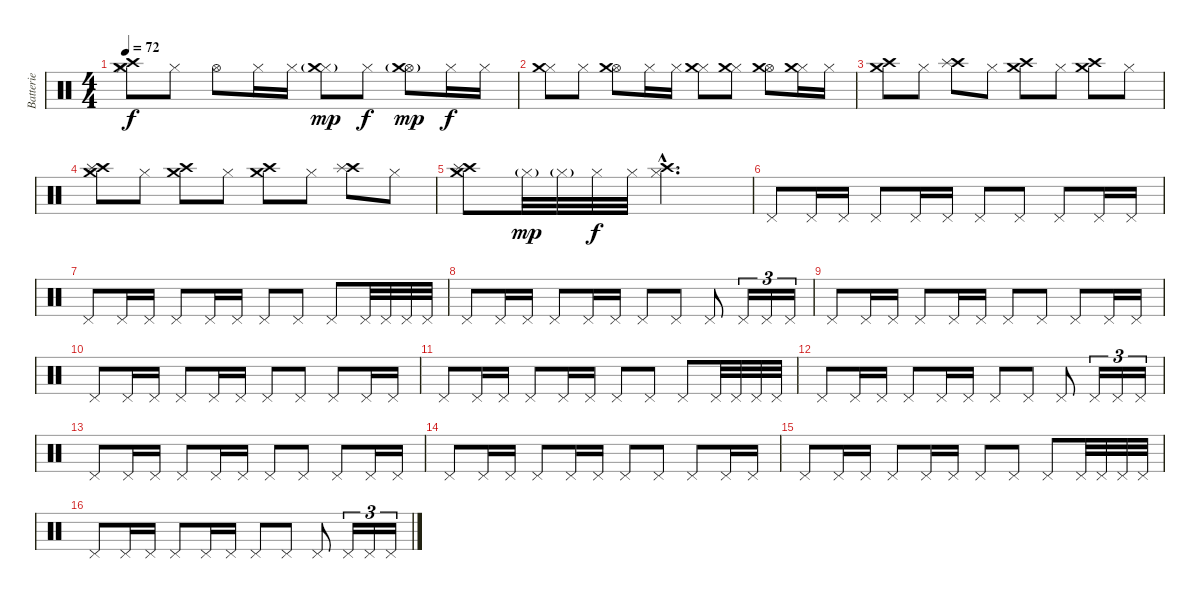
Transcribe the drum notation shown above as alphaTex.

\track ("Batterie" "Batterie") {instrument percussion}
\staff {score}
\articulation defaults
\ts (4 4)
\tempo 72
\clef neutral
\ks c
("Hi-Hat (closed)" "Crash high (hit)" "Crash medium (hit)").8{dy f} "Hi-Hat (closed)".8 "Hi-Hat (open)".8 "Hi-Hat (closed)".16 "Hi-Hat (closed)".16 ("Hi-Hat (closed)" "Crash medium (hit)"{g}).8{dy mp} "Hi-Hat (closed)".8{dy f} ("Hi-Hat (open)" "Crash medium (hit)"{g}).8{dy mp} "Hi-Hat (closed)".16{dy f} "Hi-Hat (closed)".16 |
("Hi-Hat (closed)" "Crash medium (hit)").8 "Hi-Hat (closed)".8 ("Hi-Hat (open)" "Crash medium (hit)").8 "Hi-Hat (closed)".16 "Hi-Hat (closed)".16 ("Hi-Hat (closed)" "Crash medium (hit)").8 ("Hi-Hat (closed)" "Crash medium (hit)").8 ("Hi-Hat (open)" "Crash medium (hit)").8 ("Hi-Hat (closed)" "Crash medium (hit)").16 "Hi-Hat (closed)".16 |
("Crash high (hit)" "Crash medium (hit)").8 "Hi-Hat (closed)".8 ("Crash high (hit)" "Splash (hit)").8 "Hi-Hat (closed)".8 ("Crash high (hit)" "Crash medium (hit)").8 "Hi-Hat (closed)".8 ("Crash high (hit)" "Crash medium (hit)").8 "Hi-Hat (closed)".8 |
("Crash high (hit)" "Crash medium (hit)" "Splash (hit)").8 "Hi-Hat (closed)".8 ("Crash high (hit)" "Crash medium (hit)").8 "Hi-Hat (closed)".8 ("Crash high (hit)" "Crash medium (hit)").8 "Hi-Hat (closed)".8 ("Crash high (hit)" "Splash (hit)").8 "Hi-Hat (closed)".8 |
("Crash high (hit)" "Splash (hit)" "Crash medium (hit)").8 "Hi-Hat (closed)"{g}.32{dy mp} "Hi-Hat (closed)"{g}.32 "Hi-Hat (closed)".32{dy f} "Hi-Hat (closed)".32 ("Crash high (hit)"{hac} "Hi-Hat (closed)"{hac}).2{d} |
"Pedal Hi-Hat (hit)".8 "Pedal Hi-Hat (hit)".16 "Pedal Hi-Hat (hit)".16 "Pedal Hi-Hat (hit)".8 "Pedal Hi-Hat (hit)".16 "Pedal Hi-Hat (hit)".16 "Pedal Hi-Hat (hit)".8 "Pedal Hi-Hat (hit)".8 "Pedal Hi-Hat (hit)".8 "Pedal Hi-Hat (hit)".16 "Pedal Hi-Hat (hit)".16 |
"Pedal Hi-Hat (hit)".8 "Pedal Hi-Hat (hit)".16 "Pedal Hi-Hat (hit)".16 "Pedal Hi-Hat (hit)".8 "Pedal Hi-Hat (hit)".16 "Pedal Hi-Hat (hit)".16 "Pedal Hi-Hat (hit)".8 "Pedal Hi-Hat (hit)".8 "Pedal Hi-Hat (hit)".8 "Pedal Hi-Hat (hit)".32 "Pedal Hi-Hat (hit)".32 "Pedal Hi-Hat (hit)".32 "Pedal Hi-Hat (hit)".32 |
"Pedal Hi-Hat (hit)".8 "Pedal Hi-Hat (hit)".16 "Pedal Hi-Hat (hit)".16 "Pedal Hi-Hat (hit)".8 "Pedal Hi-Hat (hit)".16 "Pedal Hi-Hat (hit)".16 "Pedal Hi-Hat (hit)".8 "Pedal Hi-Hat (hit)".8 "Pedal Hi-Hat (hit)".8 "Pedal Hi-Hat (hit)".16{tu (3 2)} "Pedal Hi-Hat (hit)".16{tu (3 2)} "Pedal Hi-Hat (hit)".16{tu (3 2)} |
"Pedal Hi-Hat (hit)".8 "Pedal Hi-Hat (hit)".16 "Pedal Hi-Hat (hit)".16 "Pedal Hi-Hat (hit)".8 "Pedal Hi-Hat (hit)".16 "Pedal Hi-Hat (hit)".16 "Pedal Hi-Hat (hit)".8 "Pedal Hi-Hat (hit)".8 "Pedal Hi-Hat (hit)".8 "Pedal Hi-Hat (hit)".16 "Pedal Hi-Hat (hit)".16 |
"Pedal Hi-Hat (hit)".8 "Pedal Hi-Hat (hit)".16 "Pedal Hi-Hat (hit)".16 "Pedal Hi-Hat (hit)".8 "Pedal Hi-Hat (hit)".16 "Pedal Hi-Hat (hit)".16 "Pedal Hi-Hat (hit)".8 "Pedal Hi-Hat (hit)".8 "Pedal Hi-Hat (hit)".8 "Pedal Hi-Hat (hit)".16 "Pedal Hi-Hat (hit)".16 |
"Pedal Hi-Hat (hit)".8 "Pedal Hi-Hat (hit)".16 "Pedal Hi-Hat (hit)".16 "Pedal Hi-Hat (hit)".8 "Pedal Hi-Hat (hit)".16 "Pedal Hi-Hat (hit)".16 "Pedal Hi-Hat (hit)".8 "Pedal Hi-Hat (hit)".8 "Pedal Hi-Hat (hit)".8 "Pedal Hi-Hat (hit)".32 "Pedal Hi-Hat (hit)".32 "Pedal Hi-Hat (hit)".32 "Pedal Hi-Hat (hit)".32 |
"Pedal Hi-Hat (hit)".8 "Pedal Hi-Hat (hit)".16 "Pedal Hi-Hat (hit)".16 "Pedal Hi-Hat (hit)".8 "Pedal Hi-Hat (hit)".16 "Pedal Hi-Hat (hit)".16 "Pedal Hi-Hat (hit)".8 "Pedal Hi-Hat (hit)".8 "Pedal Hi-Hat (hit)".8 "Pedal Hi-Hat (hit)".16{tu (3 2)} "Pedal Hi-Hat (hit)".16{tu (3 2)} "Pedal Hi-Hat (hit)".16{tu (3 2)} |
"Pedal Hi-Hat (hit)".8 "Pedal Hi-Hat (hit)".16 "Pedal Hi-Hat (hit)".16 "Pedal Hi-Hat (hit)".8 "Pedal Hi-Hat (hit)".16 "Pedal Hi-Hat (hit)".16 "Pedal Hi-Hat (hit)".8 "Pedal Hi-Hat (hit)".8 "Pedal Hi-Hat (hit)".8 "Pedal Hi-Hat (hit)".16 "Pedal Hi-Hat (hit)".16 |
"Pedal Hi-Hat (hit)".8 "Pedal Hi-Hat (hit)".16 "Pedal Hi-Hat (hit)".16 "Pedal Hi-Hat (hit)".8 "Pedal Hi-Hat (hit)".16 "Pedal Hi-Hat (hit)".16 "Pedal Hi-Hat (hit)".8 "Pedal Hi-Hat (hit)".8 "Pedal Hi-Hat (hit)".8 "Pedal Hi-Hat (hit)".16 "Pedal Hi-Hat (hit)".16 |
"Pedal Hi-Hat (hit)".8 "Pedal Hi-Hat (hit)".16 "Pedal Hi-Hat (hit)".16 "Pedal Hi-Hat (hit)".8 "Pedal Hi-Hat (hit)".16 "Pedal Hi-Hat (hit)".16 "Pedal Hi-Hat (hit)".8 "Pedal Hi-Hat (hit)".8 "Pedal Hi-Hat (hit)".8 "Pedal Hi-Hat (hit)".32 "Pedal Hi-Hat (hit)".32 "Pedal Hi-Hat (hit)".32 "Pedal Hi-Hat (hit)".32 |
"Pedal Hi-Hat (hit)".8 "Pedal Hi-Hat (hit)".16 "Pedal Hi-Hat (hit)".16 "Pedal Hi-Hat (hit)".8 "Pedal Hi-Hat (hit)".16 "Pedal Hi-Hat (hit)".16 "Pedal Hi-Hat (hit)".8 "Pedal Hi-Hat (hit)".8 "Pedal Hi-Hat (hit)".8 "Pedal Hi-Hat (hit)".16{tu (3 2)} "Pedal Hi-Hat (hit)".16{tu (3 2)} "Pedal Hi-Hat (hit)".16{tu (3 2)}
